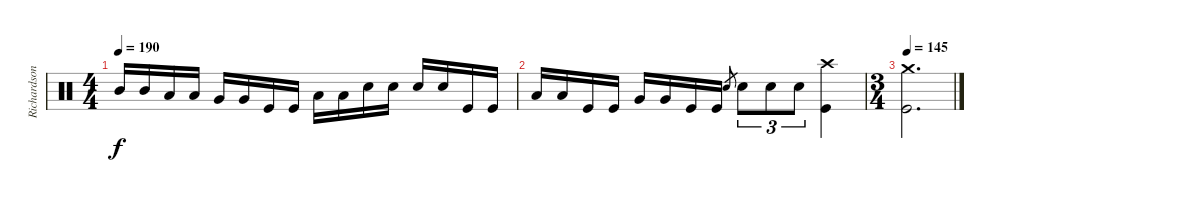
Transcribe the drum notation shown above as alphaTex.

\track ("Richardson" "Richardson") {instrument percussion}
\staff {score}
\articulation defaults
\ts (4 4)
\tempo 190
\clef neutral
\ks c "Mid Tom (hit)".16{dy f} "Mid Tom (hit)".16 "Low Tom (hit)".16 "Low Tom (hit)".16 "Very Low Tom (hit)".16 "Very Low Tom (hit)".16 "Kick (hit)".16 "Kick (hit)".16 "Low Tom (hit)".16 "Low Tom (hit)".16 "Electric Snare (hit)".16 "Electric Snare (hit)".16 "Electric Snare (hit)".16 "Electric Snare (hit)".16 "Kick (hit)".16 "Kick (hit)".16
|
"Low Tom (hit)".16 "Low Tom (hit)".16 "Kick (hit)".16 "Kick (hit)".16 "Very Low Tom (hit)".16 "Very Low Tom (hit)".16 "Kick (hit)".16 "Kick (hit)".16 "Electric Snare (hit)".8{gr} "Electric Snare (hit)".8{tu (3 2)} "Electric Snare (hit)".8{tu (3 2)} "Electric Snare (hit)".8{tu (3 2)} ("Crash high (hit)" "Kick (hit)").4 |
\ts (3 4)
\tempo 145
("Crash medium (hit)" "Kick (hit)").2{d}
